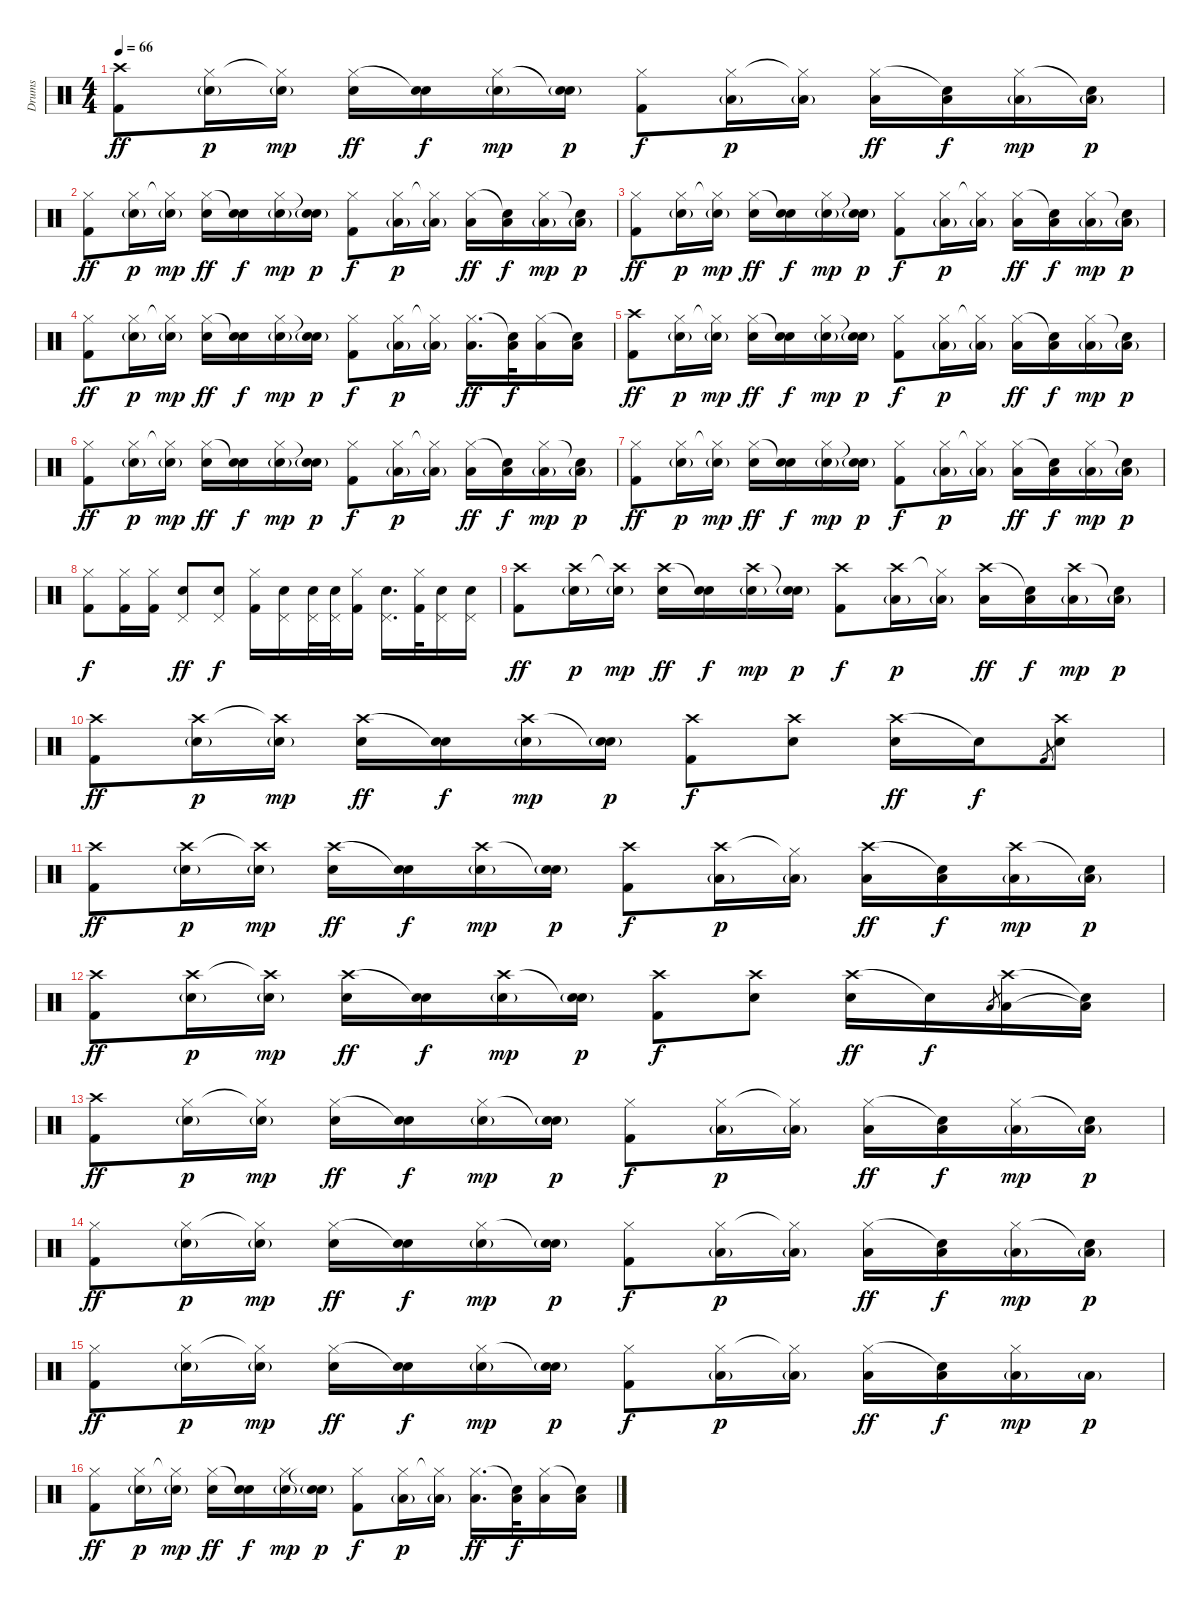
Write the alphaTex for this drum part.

\track ("Drums" "Drums") {instrument percussion}
\staff {score}
\articulation defaults
\ts (4 4)
\tempo 66
\clef neutral
\ks c
("Crash high (hit)" "Kick (hit) 2").8{dy ff} ("Hi-Hat (closed)" "Snare (hit) 2"{g}).16{dy p} ("Hi-Hat (closed)"{t} "Snare (hit) 2"{g}).16{dy mp} ("Hi-Hat (closed)" "Snare (hit) 2").16{dy ff} ("Snare (hit)"{t} "Snare (hit) 2").16{dy f} ("Hi-Hat (closed)" "Snare (hit) 2"{g}).16{dy mp} ("Snare (hit)"{t} "Snare (hit) 2"{g}).16{dy p} ("Hi-Hat (closed)" "Kick (hit) 2").8{dy f} ("Hi-Hat (closed)" "Low Floor Tom (hit)"{g}).16{dy p} ("Hi-Hat (closed)"{t} "Low Floor Tom (hit)"{g}).16 ("Hi-Hat (closed)" "Low Floor Tom (hit)").16{dy ff} ("Snare (hit)"{t} "Low Floor Tom (hit)").16{dy f} ("Hi-Hat (closed)" "Low Floor Tom (hit)"{g}).16{dy mp} ("Snare (hit)"{t} "Low Floor Tom (hit)"{g}).16{dy p} |
("Hi-Hat (closed)" "Kick (hit) 2").8{dy ff} ("Hi-Hat (closed)" "Snare (hit) 2"{g}).16{dy p} ("Hi-Hat (closed)"{t} "Snare (hit) 2"{g}).16{dy mp} ("Hi-Hat (closed)" "Snare (hit) 2").16{dy ff} ("Snare (hit)"{t} "Snare (hit) 2").16{dy f} ("Hi-Hat (closed)" "Snare (hit) 2"{g}).16{dy mp} ("Snare (hit)"{t} "Snare (hit) 2"{g}).16{dy p} ("Hi-Hat (closed)" "Kick (hit) 2").8{dy f} ("Hi-Hat (closed)" "Low Floor Tom (hit)"{g}).16{dy p} ("Hi-Hat (closed)"{t} "Low Floor Tom (hit)"{g}).16 ("Hi-Hat (closed)" "Low Floor Tom (hit)").16{dy ff} ("Snare (hit)"{t} "Low Floor Tom (hit)").16{dy f} ("Hi-Hat (closed)" "Low Floor Tom (hit)"{g}).16{dy mp} ("Snare (hit)"{t} "Low Floor Tom (hit)"{g}).16{dy p} |
("Hi-Hat (closed)" "Kick (hit) 2").8{dy ff} ("Hi-Hat (closed)" "Snare (hit) 2"{g}).16{dy p} ("Hi-Hat (closed)"{t} "Snare (hit) 2"{g}).16{dy mp} ("Hi-Hat (closed)" "Snare (hit) 2").16{dy ff} ("Snare (hit)"{t} "Snare (hit) 2").16{dy f} ("Hi-Hat (closed)" "Snare (hit) 2"{g}).16{dy mp} ("Snare (hit)"{t} "Snare (hit) 2"{g}).16{dy p} ("Hi-Hat (closed)" "Kick (hit) 2").8{dy f} ("Hi-Hat (closed)" "Low Floor Tom (hit)"{g}).16{dy p} ("Hi-Hat (closed)"{t} "Low Floor Tom (hit)"{g}).16 ("Hi-Hat (closed)" "Low Floor Tom (hit)").16{dy ff} ("Snare (hit)"{t} "Low Floor Tom (hit)").16{dy f} ("Hi-Hat (closed)" "Low Floor Tom (hit)"{g}).16{dy mp} ("Snare (hit)"{t} "Low Floor Tom (hit)"{g}).16{dy p} |
("Hi-Hat (closed)" "Kick (hit) 2").8{dy ff} ("Hi-Hat (closed)" "Snare (hit) 2"{g}).16{dy p} ("Hi-Hat (closed)"{t} "Snare (hit) 2"{g}).16{dy mp} ("Hi-Hat (closed)" "Snare (hit) 2").16{dy ff} ("Snare (hit)"{t} "Snare (hit) 2").16{dy f} ("Hi-Hat (closed)" "Snare (hit) 2"{g}).16{dy mp} ("Snare (hit)"{t} "Snare (hit) 2"{g}).16{dy p} ("Hi-Hat (closed)" "Kick (hit) 2").8{dy f} ("Hi-Hat (closed)" "Low Floor Tom (hit)"{g}).16{dy p} ("Hi-Hat (closed)"{t} "Low Floor Tom (hit)"{g}).16 ("Hi-Hat (closed)" "Low Floor Tom (hit)").16{d dy ff} ("Snare (hit)"{t} "Low Floor Tom (hit)").32{dy f} ("Hi-Hat (closed)" "Low Floor Tom (hit)").16 ("Snare (hit)"{t} "Low Floor Tom (hit)").16 |
("Crash high (hit)" "Kick (hit) 2").8{dy ff} ("Hi-Hat (closed)" "Snare (hit) 2"{g}).16{dy p} ("Hi-Hat (closed)"{t} "Snare (hit) 2"{g}).16{dy mp} ("Hi-Hat (closed)" "Snare (hit) 2").16{dy ff} ("Snare (hit)"{t} "Snare (hit) 2").16{dy f} ("Hi-Hat (closed)" "Snare (hit) 2"{g}).16{dy mp} ("Snare (hit)"{t} "Snare (hit) 2"{g}).16{dy p} ("Hi-Hat (closed)" "Kick (hit) 2").8{dy f} ("Hi-Hat (closed)" "Low Floor Tom (hit)"{g}).16{dy p} ("Hi-Hat (closed)"{t} "Low Floor Tom (hit)"{g}).16 ("Hi-Hat (closed)" "Low Floor Tom (hit)").16{dy ff} ("Snare (hit)"{t} "Low Floor Tom (hit)").16{dy f} ("Hi-Hat (closed)" "Low Floor Tom (hit)"{g}).16{dy mp} ("Snare (hit)"{t} "Low Floor Tom (hit)"{g}).16{dy p} |
("Hi-Hat (closed)" "Kick (hit) 2").8{dy ff} ("Hi-Hat (closed)" "Snare (hit) 2"{g}).16{dy p} ("Hi-Hat (closed)"{t} "Snare (hit) 2"{g}).16{dy mp} ("Hi-Hat (closed)" "Snare (hit) 2").16{dy ff} ("Snare (hit)"{t} "Snare (hit) 2").16{dy f} ("Hi-Hat (closed)" "Snare (hit) 2"{g}).16{dy mp} ("Snare (hit)"{t} "Snare (hit) 2"{g}).16{dy p} ("Hi-Hat (closed)" "Kick (hit) 2").8{dy f} ("Hi-Hat (closed)" "Low Floor Tom (hit)"{g}).16{dy p} ("Hi-Hat (closed)"{t} "Low Floor Tom (hit)"{g}).16 ("Hi-Hat (closed)" "Low Floor Tom (hit)").16{dy ff} ("Snare (hit)"{t} "Low Floor Tom (hit)").16{dy f} ("Hi-Hat (closed)" "Low Floor Tom (hit)"{g}).16{dy mp} ("Snare (hit)"{t} "Low Floor Tom (hit)"{g}).16{dy p} |
("Hi-Hat (closed)" "Kick (hit) 2").8{dy ff} ("Hi-Hat (closed)" "Snare (hit) 2"{g}).16{dy p} ("Hi-Hat (closed)"{t} "Snare (hit) 2"{g}).16{dy mp} ("Hi-Hat (closed)" "Snare (hit) 2").16{dy ff} ("Snare (hit)"{t} "Snare (hit) 2").16{dy f} ("Hi-Hat (closed)" "Snare (hit) 2"{g}).16{dy mp} ("Snare (hit)"{t} "Snare (hit) 2"{g}).16{dy p} ("Hi-Hat (closed)" "Kick (hit) 2").8{dy f} ("Hi-Hat (closed)" "Low Floor Tom (hit)"{g}).16{dy p} ("Hi-Hat (closed)"{t} "Low Floor Tom (hit)"{g}).16 ("Hi-Hat (closed)" "Low Floor Tom (hit)").16{dy ff} ("Snare (hit)"{t} "Low Floor Tom (hit)").16{dy f} ("Hi-Hat (closed)" "Low Floor Tom (hit)"{g}).16{dy mp} ("Snare (hit)"{t} "Low Floor Tom (hit)"{g}).16{dy p} |
("Hi-Hat (closed)" "Kick (hit) 2").8{dy f} ("Hi-Hat (closed)" "Kick (hit) 2").16 ("Hi-Hat (closed)" "Kick (hit) 2").16 ("Pedal Hi-Hat (hit)" "Snare (hit) 2").8{dy ff} ("Pedal Hi-Hat (hit)" "Snare (hit) 2").8{dy f} ("Hi-Hat (closed)" "Kick (hit) 2").16 ("Pedal Hi-Hat (hit)" "Snare (hit) 2").16 ("Pedal Hi-Hat (hit)" "Snare (hit) 2").32 ("Pedal Hi-Hat (hit)" "Snare (hit) 2").32 ("Hi-Hat (closed)" "Kick (hit) 2").16 ("Pedal Hi-Hat (hit)" "Snare (hit) 2").16{d} ("Hi-Hat (closed)" "Kick (hit) 2").32 ("Pedal Hi-Hat (hit)" "Snare (hit) 2").16 ("Pedal Hi-Hat (hit)" "Snare (hit) 2").16 |
("Crash high (hit)" "Kick (hit) 2").8{dy ff volume 16} ("Crash high (hit)" "Snare (hit) 2"{g}).16{dy p} ("Crash high (hit)"{t} "Snare (hit) 2"{g}).16{dy mp} ("Crash high (hit)" "Snare (hit) 2").16{dy ff} ("Snare (hit)"{t} "Snare (hit) 2").16{dy f} ("Crash high (hit)" "Snare (hit) 2"{g}).16{dy mp} ("Snare (hit)"{t} "Snare (hit) 2"{g}).16{dy p} ("Crash high (hit)" "Kick (hit) 2").8{dy f} ("Crash high (hit)" "Low Floor Tom (hit)"{g}).16{dy p} ("Hi-Hat (closed)"{t} "Low Floor Tom (hit)"{g}).16 ("Crash high (hit)" "Low Floor Tom (hit)").16{dy ff} ("Snare (hit)"{t} "Low Floor Tom (hit)").16{dy f} ("Crash high (hit)" "Low Floor Tom (hit)"{g}).16{dy mp} ("Snare (hit)"{t} "Low Floor Tom (hit)"{g}).16{dy p} |
("Crash high (hit)" "Kick (hit) 2").8{dy ff} ("Crash high (hit)" "Snare (hit) 2"{g}).16{dy p} ("Crash high (hit)"{t} "Snare (hit) 2"{g}).16{dy mp} ("Crash high (hit)" "Snare (hit) 2").16{dy ff} ("Snare (hit)"{t} "Snare (hit) 2").16{dy f} ("Crash high (hit)" "Snare (hit) 2"{g}).16{dy mp} ("Snare (hit)"{t} "Snare (hit) 2"{g}).16{dy p} ("Crash high (hit)" "Kick (hit) 2").8{dy f} ("Crash high (hit)" "Snare (hit) 2").8 ("Crash high (hit)" "Snare (hit) 2").16{dy ff} "Snare (hit)"{t}.16{dy f} "Kick (hit) 2".8{gr} ("Crash high (hit)" "Snare (hit) 2").8 |
("Crash high (hit)" "Kick (hit) 2").8{dy ff} ("Crash high (hit)" "Snare (hit) 2"{g}).16{dy p} ("Crash high (hit)"{t} "Snare (hit) 2"{g}).16{dy mp} ("Crash high (hit)" "Snare (hit) 2").16{dy ff} ("Snare (hit)"{t} "Snare (hit) 2").16{dy f} ("Crash high (hit)" "Snare (hit) 2"{g}).16{dy mp} ("Snare (hit)"{t} "Snare (hit) 2"{g}).16{dy p} ("Crash high (hit)" "Kick (hit) 2").8{dy f} ("Crash high (hit)" "Low Floor Tom (hit)"{g}).16{dy p} ("Hi-Hat (closed)"{t} "Low Floor Tom (hit)"{g}).16 ("Crash high (hit)" "Low Floor Tom (hit)").16{dy ff} ("Snare (hit)"{t} "Low Floor Tom (hit)").16{dy f} ("Crash high (hit)" "Low Floor Tom (hit)"{g}).16{dy mp} ("Snare (hit)"{t} "Low Floor Tom (hit)"{g}).16{dy p} |
("Crash high (hit)" "Kick (hit) 2").8{dy ff} ("Crash high (hit)" "Snare (hit) 2"{g}).16{dy p} ("Crash high (hit)"{t} "Snare (hit) 2"{g}).16{dy mp} ("Crash high (hit)" "Snare (hit) 2").16{dy ff} ("Snare (hit)"{t} "Snare (hit) 2").16{dy f} ("Crash high (hit)" "Snare (hit) 2"{g}).16{dy mp} ("Snare (hit)"{t} "Snare (hit) 2"{g}).16{dy p} ("Crash high (hit)" "Kick (hit) 2").8{dy f} ("Crash high (hit)" "Snare (hit) 2").8 ("Crash high (hit)" "Snare (hit) 2").16{dy ff} "Snare (hit)"{t}.16{dy f} "Low Floor Tom (hit)".8{gr} ("Crash high (hit)" "Low Floor Tom (hit)").16 ("Snare (hit)"{t} "Low Floor Tom (hit)"{t}).16 |
("Crash high (hit)" "Kick (hit) 2").8{dy ff} ("Hi-Hat (closed)" "Snare (hit) 2"{g}).16{dy p} ("Hi-Hat (closed)"{t} "Snare (hit) 2"{g}).16{dy mp} ("Hi-Hat (closed)" "Snare (hit) 2").16{dy ff} ("Snare (hit)"{t} "Snare (hit) 2").16{dy f} ("Hi-Hat (closed)" "Snare (hit) 2"{g}).16{dy mp} ("Snare (hit)"{t} "Snare (hit) 2"{g}).16{dy p} ("Hi-Hat (closed)" "Kick (hit) 2").8{dy f} ("Hi-Hat (closed)" "Low Floor Tom (hit)"{g}).16{dy p} ("Hi-Hat (closed)"{t} "Low Floor Tom (hit)"{g}).16 ("Hi-Hat (closed)" "Low Floor Tom (hit)").16{dy ff} ("Snare (hit)"{t} "Low Floor Tom (hit)").16{dy f} ("Hi-Hat (closed)" "Low Floor Tom (hit)"{g}).16{dy mp} ("Snare (hit)"{t} "Low Floor Tom (hit)"{g}).16{dy p} |
("Hi-Hat (closed)" "Kick (hit) 2").8{dy ff} ("Hi-Hat (closed)" "Snare (hit) 2"{g}).16{dy p} ("Hi-Hat (closed)"{t} "Snare (hit) 2"{g}).16{dy mp} ("Hi-Hat (closed)" "Snare (hit) 2").16{dy ff} ("Snare (hit)"{t} "Snare (hit) 2").16{dy f} ("Hi-Hat (closed)" "Snare (hit) 2"{g}).16{dy mp} ("Snare (hit)"{t} "Snare (hit) 2"{g}).16{dy p} ("Hi-Hat (closed)" "Kick (hit) 2").8{dy f} ("Hi-Hat (closed)" "Low Floor Tom (hit)"{g}).16{dy p} ("Hi-Hat (closed)"{t} "Low Floor Tom (hit)"{g}).16 ("Hi-Hat (closed)" "Low Floor Tom (hit)").16{dy ff} ("Snare (hit)"{t} "Low Floor Tom (hit)").16{dy f} ("Hi-Hat (closed)" "Low Floor Tom (hit)"{g}).16{dy mp} ("Snare (hit)"{t} "Low Floor Tom (hit)"{g}).16{dy p} |
("Hi-Hat (closed)" "Kick (hit) 2").8{dy ff} ("Hi-Hat (closed)" "Snare (hit) 2"{g}).16{dy p} ("Hi-Hat (closed)"{t} "Snare (hit) 2"{g}).16{dy mp} ("Hi-Hat (closed)" "Snare (hit) 2").16{dy ff} ("Snare (hit)"{t} "Snare (hit) 2").16{dy f} ("Hi-Hat (closed)" "Snare (hit) 2"{g}).16{dy mp} ("Snare (hit)"{t} "Snare (hit) 2"{g}).16{dy p} ("Hi-Hat (closed)" "Kick (hit) 2").8{dy f} ("Hi-Hat (closed)" "Low Floor Tom (hit)"{g}).16{dy p} ("Hi-Hat (closed)"{t} "Low Floor Tom (hit)"{g}).16 ("Hi-Hat (closed)" "Low Floor Tom (hit)").16{dy ff} ("Snare (hit)"{t} "Low Floor Tom (hit)").16{dy f} ("Hi-Hat (closed)" "Low Floor Tom (hit)"{g}).16{dy mp} "Low Floor Tom (hit)"{g}.16{dy p} |
("Hi-Hat (closed)" "Kick (hit) 2").8{dy ff} ("Hi-Hat (closed)" "Snare (hit) 2"{g}).16{dy p} ("Hi-Hat (closed)"{t} "Snare (hit) 2"{g}).16{dy mp} ("Hi-Hat (closed)" "Snare (hit) 2").16{dy ff} ("Snare (hit)"{t} "Snare (hit) 2").16{dy f} ("Hi-Hat (closed)" "Snare (hit) 2"{g}).16{dy mp} ("Snare (hit)"{t} "Snare (hit) 2"{g}).16{dy p} ("Hi-Hat (closed)" "Kick (hit) 2").8{dy f} ("Hi-Hat (closed)" "Low Floor Tom (hit)"{g}).16{dy p} ("Hi-Hat (closed)"{t} "Low Floor Tom (hit)"{g}).16 ("Hi-Hat (closed)" "Low Floor Tom (hit)").16{d dy ff} ("Snare (hit)"{t} "Low Floor Tom (hit)").32{dy f} ("Hi-Hat (closed)" "Low Floor Tom (hit)").16 ("Snare (hit)"{t} "Low Floor Tom (hit)").16
